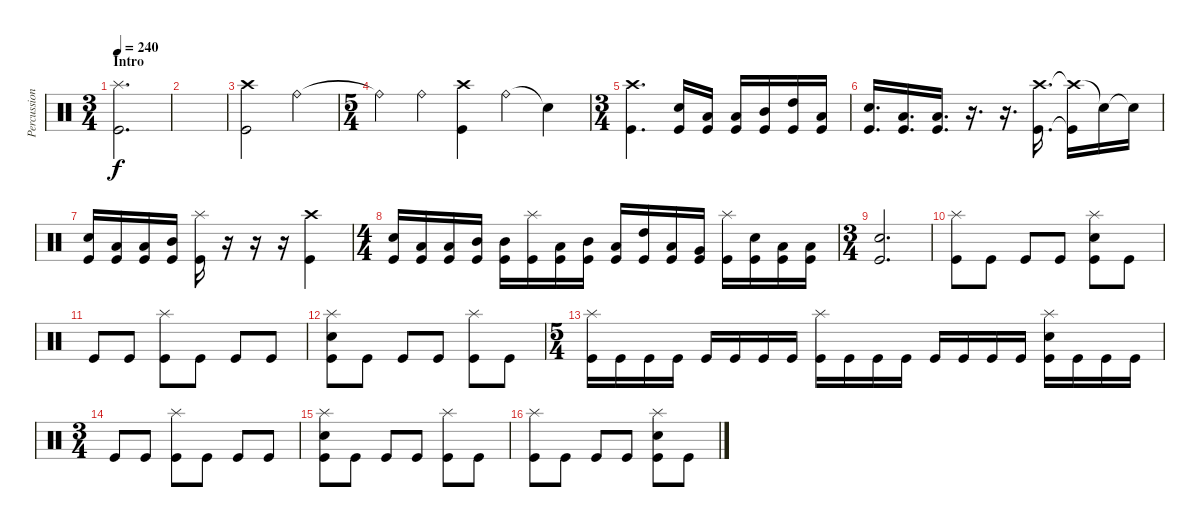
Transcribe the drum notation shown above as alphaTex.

\track ("Percussion" "Percussion") {instrument percussion}
\staff {score}
\articulation defaults
\ts (3 4)
\section ("" "Intro")
\tempo 240
\clef neutral
\ks c
("Splash (hit)" "Kick (hit)").2{d dy f} |
|
("Crash high (hit)" "Kick (hit)").2 "Ride (bell)".4 |
\ts (5 4)
"Ride (bell)"{t}.4 "Ride (bell)".4 ("Crash high (hit)" "Kick (hit)").4 "Ride (bell)".4 "Snare (hit)"{t}.4 |
\ts (3 4)
("Crash high (hit)" "Kick (hit)").4{d} ("Snare (hit) 2" "Kick (hit)").16 ("Low Tom (hit)" "Kick (hit)").16 ("Low Tom (hit)" "Kick (hit)").16 ("Mid Tom (hit)" "Kick (hit)").16 ("High Tom (hit)" "Kick (hit)").16 ("Low Tom (hit)" "Kick (hit)").16 |
("Snare (hit) 2" "Kick (hit)").16{d} ("Low Tom (hit)" "Kick (hit)").16{d} ("Low Tom (hit)" "Kick (hit)").16{d} r.16{d} r.16{d} ("Crash high (hit)" "Kick (hit)").16{d} ("Crash high (hit)"{t} "Kick (hit)"{t}).16 "Snare (hit)"{t}.16 "Snare (hit)"{t}.16 |
("Snare (hit) 2" "Kick (hit)").16 ("Low Tom (hit)" "Kick (hit)").16 ("Low Tom (hit)" "Kick (hit)").16 ("Mid Tom (hit)" "Kick (hit)").16 ("Splash (hit)" "Kick (hit)").16 r.16 r.16 r.16 ("Crash high (hit)" "Kick (hit)").4 |
\ts (4 4)
("Snare (hit) 2" "Kick (hit)").16 ("Low Tom (hit)" "Kick (hit)").16 ("Low Tom (hit)" "Kick (hit)").16 ("Mid Tom (hit)" "Kick (hit)").16 ("Mid Tom (hit)" "Kick (hit)").16 ("Splash (hit)" "Kick (hit)").16 ("Low Tom (hit)" "Kick (hit)").16 ("Mid Tom (hit)" "Kick (hit)").16 ("Low Tom (hit)" "Kick (hit)").16 ("High Tom (hit)" "Kick (hit)").16 ("Low Tom (hit)" "Kick (hit)").16 ("Very Low Tom (hit)" "Kick (hit)").16 ("Splash (hit)" "Kick (hit)").16 ("Snare (hit) 2" "Kick (hit)").16 ("Low Tom (hit)" "Kick (hit)").16 ("Low Tom (hit)" "Kick (hit)").16 |
\ts (3 4)
("Snare (hit) 2" "Kick (hit)").2{d} |
("Splash (hit)" "Kick (hit)").8 "Kick (hit)".8 "Kick (hit)".8 "Kick (hit)".8 ("Splash (hit)" "Snare (hit) 2" "Kick (hit)").8 "Kick (hit)".8 |
"Kick (hit)".8 "Kick (hit)".8 ("Splash (hit)" "Kick (hit)").8 "Kick (hit)".8 "Kick (hit)".8 "Kick (hit)".8 |
("Splash (hit)" "Snare (hit) 2" "Kick (hit)").8 "Kick (hit)".8 "Kick (hit)".8 "Kick (hit)".8 ("Splash (hit)" "Kick (hit)").8 "Kick (hit)".8 |
\ts (5 4)
("Splash (hit)" "Kick (hit)").16 "Kick (hit)".16 "Kick (hit)".16 "Kick (hit)".16 "Kick (hit)".16 "Kick (hit)".16 "Kick (hit)".16 "Kick (hit)".16 ("Splash (hit)" "Kick (hit)").16 "Kick (hit)".16 "Kick (hit)".16 "Kick (hit)".16 "Kick (hit)".16 "Kick (hit)".16 "Kick (hit)".16 "Kick (hit)".16 ("Splash (hit)" "Snare (hit) 2" "Kick (hit)").16 "Kick (hit)".16 "Kick (hit)".16 "Kick (hit)".16 |
\ts (3 4)
"Kick (hit)".8 "Kick (hit)".8 ("Splash (hit)" "Kick (hit)").8 "Kick (hit)".8 "Kick (hit)".8 "Kick (hit)".8 |
("Splash (hit)" "Snare (hit) 2" "Kick (hit)").8 "Kick (hit)".8 "Kick (hit)".8 "Kick (hit)".8 ("Splash (hit)" "Kick (hit)").8 "Kick (hit)".8 |
("Splash (hit)" "Kick (hit)").8 "Kick (hit)".8 "Kick (hit)".8 "Kick (hit)".8 ("Splash (hit)" "Snare (hit) 2" "Kick (hit)").8 "Kick (hit)".8
